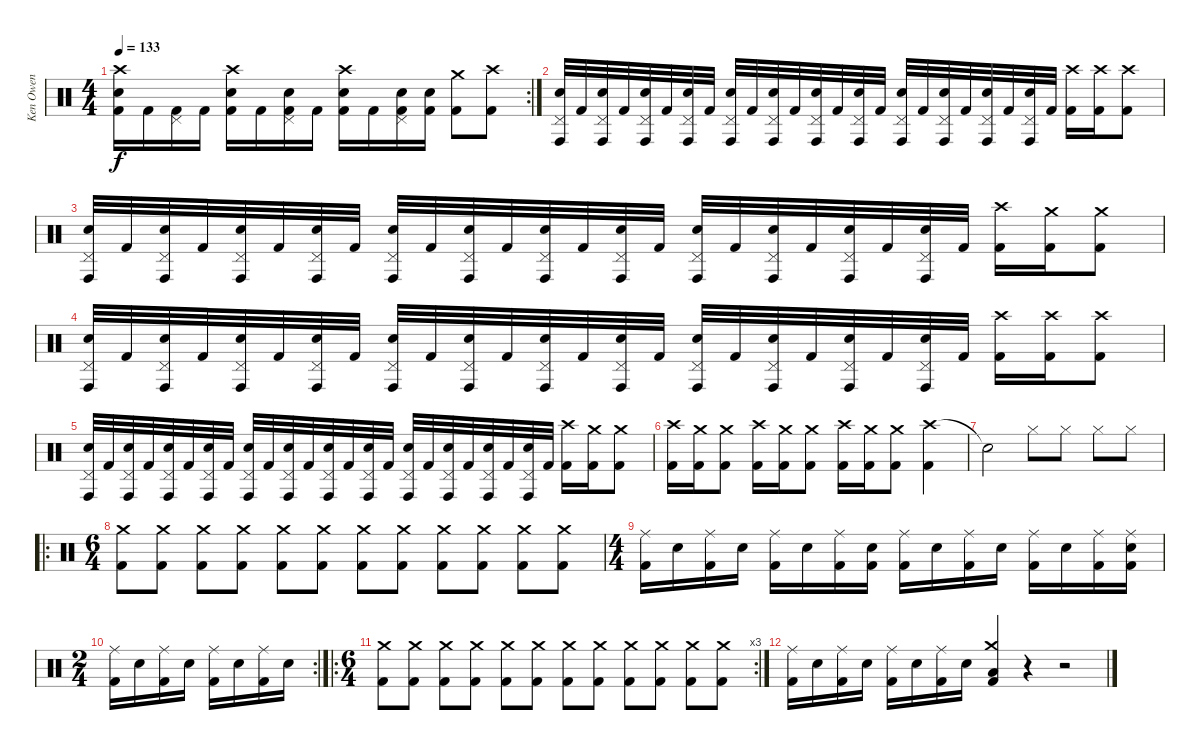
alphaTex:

\track ("Ken Owen" "Ken Owen") {instrument percussion}
\staff {score}
\articulation defaults
\rc 2
\ts (4 4)
\tempo 133
\clef neutral
\ks c
("Crash high (hit)" "Electric Snare (hit)" "Kick (hit) 2").16{dy f} "Kick (hit) 2".16 ("Pedal Hi-Hat (hit)" "Kick (hit) 2").16 "Kick (hit) 2".16 ("Crash high (hit)" "Electric Snare (hit)" "Kick (hit) 2").16 "Kick (hit) 2".16 ("Pedal Hi-Hat (hit)" "Electric Snare (hit)" "Kick (hit) 2").16 "Kick (hit) 2".16 ("Crash high (hit)" "Electric Snare (hit)" "Kick (hit) 2").16 "Kick (hit) 2".16 ("Pedal Hi-Hat (hit)" "Electric Snare (hit)" "Kick (hit) 2").16 ("Electric Snare (hit)" "Kick (hit) 2").16 ("Crash medium (hit)" "Kick (hit) 2").8 ("Crash high (hit)" "Kick (hit) 2").8 |
("Pedal Hi-Hat (hit)" "Electric Snare (hit)" "Conga high (hit)").32 "Kick (hit) 2".32 ("Pedal Hi-Hat (hit)" "Electric Snare (hit)" "Conga high (hit)").32 "Kick (hit) 2".32 ("Pedal Hi-Hat (hit)" "Electric Snare (hit)" "Conga high (hit)").32 "Kick (hit) 2".32 ("Pedal Hi-Hat (hit)" "Electric Snare (hit)" "Conga high (hit)").32 "Kick (hit) 2".32 ("Pedal Hi-Hat (hit)" "Electric Snare (hit)" "Conga high (hit)").32 "Kick (hit) 2".32 ("Pedal Hi-Hat (hit)" "Electric Snare (hit)" "Conga high (hit)").32 "Kick (hit) 2".32 ("Pedal Hi-Hat (hit)" "Electric Snare (hit)" "Conga high (hit)").32 "Kick (hit) 2".32 ("Pedal Hi-Hat (hit)" "Electric Snare (hit)" "Conga high (hit)").32 "Kick (hit) 2".32 ("Pedal Hi-Hat (hit)" "Electric Snare (hit)" "Conga high (hit)").32 "Kick (hit) 2".32 ("Pedal Hi-Hat (hit)" "Electric Snare (hit)" "Conga high (hit)").32 "Kick (hit) 2".32 ("Pedal Hi-Hat (hit)" "Electric Snare (hit)" "Conga high (hit)").32 "Kick (hit) 2".32 ("Pedal Hi-Hat (hit)" "Electric Snare (hit)" "Conga high (hit)").32 "Kick (hit) 2".32 ("Crash high (hit)" "Kick (hit) 2").16 ("Crash high (hit)" "Kick (hit) 2").16 ("Crash high (hit)" "Kick (hit) 2").8 |
("Pedal Hi-Hat (hit)" "Electric Snare (hit)" "Conga high (hit)").32 "Kick (hit) 2".32 ("Pedal Hi-Hat (hit)" "Electric Snare (hit)" "Conga high (hit)").32 "Kick (hit) 2".32 ("Pedal Hi-Hat (hit)" "Electric Snare (hit)" "Conga high (hit)").32 "Kick (hit) 2".32 ("Pedal Hi-Hat (hit)" "Electric Snare (hit)" "Conga high (hit)").32 "Kick (hit) 2".32 ("Pedal Hi-Hat (hit)" "Electric Snare (hit)" "Conga high (hit)").32 "Kick (hit) 2".32 ("Pedal Hi-Hat (hit)" "Electric Snare (hit)" "Conga high (hit)").32 "Kick (hit) 2".32 ("Pedal Hi-Hat (hit)" "Electric Snare (hit)" "Conga high (hit)").32 "Kick (hit) 2".32 ("Pedal Hi-Hat (hit)" "Electric Snare (hit)" "Conga high (hit)").32 "Kick (hit) 2".32 ("Pedal Hi-Hat (hit)" "Electric Snare (hit)" "Conga high (hit)").32 "Kick (hit) 2".32 ("Pedal Hi-Hat (hit)" "Electric Snare (hit)" "Conga high (hit)").32 "Kick (hit) 2".32 ("Pedal Hi-Hat (hit)" "Electric Snare (hit)" "Conga high (hit)").32 "Kick (hit) 2".32 ("Pedal Hi-Hat (hit)" "Electric Snare (hit)" "Conga high (hit)").32 "Kick (hit) 2".32 ("Crash high (hit)" "Kick (hit) 2").16 ("Crash medium (hit)" "Kick (hit) 2").16 ("Crash medium (hit)" "Kick (hit) 2").8 |
("Pedal Hi-Hat (hit)" "Electric Snare (hit)" "Conga high (hit)").32 "Kick (hit) 2".32 ("Pedal Hi-Hat (hit)" "Electric Snare (hit)" "Conga high (hit)").32 "Kick (hit) 2".32 ("Pedal Hi-Hat (hit)" "Electric Snare (hit)" "Conga high (hit)").32 "Kick (hit) 2".32 ("Pedal Hi-Hat (hit)" "Electric Snare (hit)" "Conga high (hit)").32 "Kick (hit) 2".32 ("Pedal Hi-Hat (hit)" "Electric Snare (hit)" "Conga high (hit)").32 "Kick (hit) 2".32 ("Pedal Hi-Hat (hit)" "Electric Snare (hit)" "Conga high (hit)").32 "Kick (hit) 2".32 ("Pedal Hi-Hat (hit)" "Electric Snare (hit)" "Conga high (hit)").32 "Kick (hit) 2".32 ("Pedal Hi-Hat (hit)" "Electric Snare (hit)" "Conga high (hit)").32 "Kick (hit) 2".32 ("Pedal Hi-Hat (hit)" "Electric Snare (hit)" "Conga high (hit)").32 "Kick (hit) 2".32 ("Pedal Hi-Hat (hit)" "Electric Snare (hit)" "Conga high (hit)").32 "Kick (hit) 2".32 ("Pedal Hi-Hat (hit)" "Electric Snare (hit)" "Conga high (hit)").32 "Kick (hit) 2".32 ("Pedal Hi-Hat (hit)" "Electric Snare (hit)" "Conga high (hit)").32 "Kick (hit) 2".32 ("Crash high (hit)" "Kick (hit) 2").16 ("Crash high (hit)" "Kick (hit) 2").16 ("Crash high (hit)" "Kick (hit) 2").8 |
("Pedal Hi-Hat (hit)" "Electric Snare (hit)" "Conga high (hit)").32 "Kick (hit) 2".32 ("Pedal Hi-Hat (hit)" "Electric Snare (hit)" "Conga high (hit)").32 "Kick (hit) 2".32 ("Pedal Hi-Hat (hit)" "Electric Snare (hit)" "Conga high (hit)").32 "Kick (hit) 2".32 ("Pedal Hi-Hat (hit)" "Electric Snare (hit)" "Conga high (hit)").32 "Kick (hit) 2".32 ("Pedal Hi-Hat (hit)" "Electric Snare (hit)" "Conga high (hit)").32 "Kick (hit) 2".32 ("Pedal Hi-Hat (hit)" "Electric Snare (hit)" "Conga high (hit)").32 "Kick (hit) 2".32 ("Pedal Hi-Hat (hit)" "Electric Snare (hit)" "Conga high (hit)").32 "Kick (hit) 2".32 ("Pedal Hi-Hat (hit)" "Electric Snare (hit)" "Conga high (hit)").32 "Kick (hit) 2".32 ("Pedal Hi-Hat (hit)" "Electric Snare (hit)" "Conga high (hit)").32 "Kick (hit) 2".32 ("Pedal Hi-Hat (hit)" "Electric Snare (hit)" "Conga high (hit)").32 "Kick (hit) 2".32 ("Pedal Hi-Hat (hit)" "Electric Snare (hit)" "Conga high (hit)").32 "Kick (hit) 2".32 ("Pedal Hi-Hat (hit)" "Electric Snare (hit)" "Conga high (hit)").32 "Kick (hit) 2".32 ("Crash high (hit)" "Kick (hit) 2").16 ("Crash medium (hit)" "Kick (hit) 2").16 ("Crash medium (hit)" "Kick (hit) 2").8 |
("Crash high (hit)" "Kick (hit) 2").16 ("Crash medium (hit)" "Kick (hit) 2").16 ("Crash medium (hit)" "Kick (hit) 2").8 ("Crash high (hit)" "Kick (hit) 2").16 ("Crash medium (hit)" "Kick (hit) 2").16 ("Crash medium (hit)" "Kick (hit) 2").8 ("Crash high (hit)" "Kick (hit) 2").16 ("Crash medium (hit)" "Kick (hit) 2").16 ("Crash medium (hit)" "Kick (hit) 2").8 ("Crash high (hit)" "Kick (hit) 2").4 |
"Snare (hit)"{t}.2 "Hi-Hat (closed)".8 "Hi-Hat (closed)".8 "Hi-Hat (closed)".8 "Hi-Hat (closed)".8 |
\ro
\ts (6 4)
("Crash medium (hit)" "Kick (hit) 2").8 ("Crash medium (hit)" "Kick (hit) 2").8 ("Crash medium (hit)" "Kick (hit) 2").8 ("Crash medium (hit)" "Kick (hit) 2").8 ("Crash medium (hit)" "Kick (hit) 2").8 ("Crash medium (hit)" "Kick (hit) 2").8 ("Crash medium (hit)" "Kick (hit) 2").8 ("Crash medium (hit)" "Kick (hit) 2").8 ("Crash medium (hit)" "Kick (hit) 2").8 ("Crash medium (hit)" "Kick (hit) 2").8 ("Crash medium (hit)" "Kick (hit) 2").8 ("Crash medium (hit)" "Kick (hit) 2").8 |
\ts (4 4)
("Ride (middle)" "Kick (hit) 2").16 "Electric Snare (hit)".16 ("Ride (middle)" "Kick (hit) 2").16 "Electric Snare (hit)".16 ("Ride (middle)" "Kick (hit) 2").16 "Electric Snare (hit)".16 ("Ride (middle)" "Kick (hit) 2").16 ("Electric Snare (hit)" "Kick (hit) 2").16 ("Ride (middle)" "Kick (hit) 2").16 "Electric Snare (hit)".16 ("Ride (middle)" "Kick (hit) 2").16 "Electric Snare (hit)".16 ("Ride (middle)" "Kick (hit) 2").16 "Electric Snare (hit)".16 ("Ride (middle)" "Kick (hit) 2").16 ("Ride (middle)" "Electric Snare (hit)" "Kick (hit) 2").16 |
\rc 2
\ts (2 4)
("Ride (middle)" "Kick (hit) 2").16 "Electric Snare (hit)".16 ("Ride (middle)" "Kick (hit) 2").16 "Electric Snare (hit)".16 ("Ride (middle)" "Kick (hit) 2").16 "Electric Snare (hit)".16 ("Ride (middle)" "Kick (hit) 2").16 "Electric Snare (hit)".16 |
\ro
\rc 3
\ts (6 4)
("Crash medium (hit)" "Kick (hit) 2").8 ("Crash medium (hit)" "Kick (hit) 2").8 ("Crash medium (hit)" "Kick (hit) 2").8 ("Crash medium (hit)" "Kick (hit) 2").8 ("Crash medium (hit)" "Kick (hit) 2").8 ("Crash medium (hit)" "Kick (hit) 2").8 ("Crash medium (hit)" "Kick (hit) 2").8 ("Crash medium (hit)" "Kick (hit) 2").8 ("Crash medium (hit)" "Kick (hit) 2").8 ("Crash medium (hit)" "Kick (hit) 2").8 ("Crash medium (hit)" "Kick (hit) 2").8 ("Crash medium (hit)" "Kick (hit) 2").8 |
("Ride (middle)" "Kick (hit) 2").16 "Electric Snare (hit)".16 ("Ride (middle)" "Kick (hit) 2").16 "Electric Snare (hit)".16 ("Ride (middle)" "Kick (hit) 2").16 "Electric Snare (hit)".16 ("Ride (middle)" "Kick (hit) 2").16 "Electric Snare (hit)".16 ("Crash medium (hit)" "Low Floor Tom (hit)" "Kick (hit) 2").4 r.4 r.2
